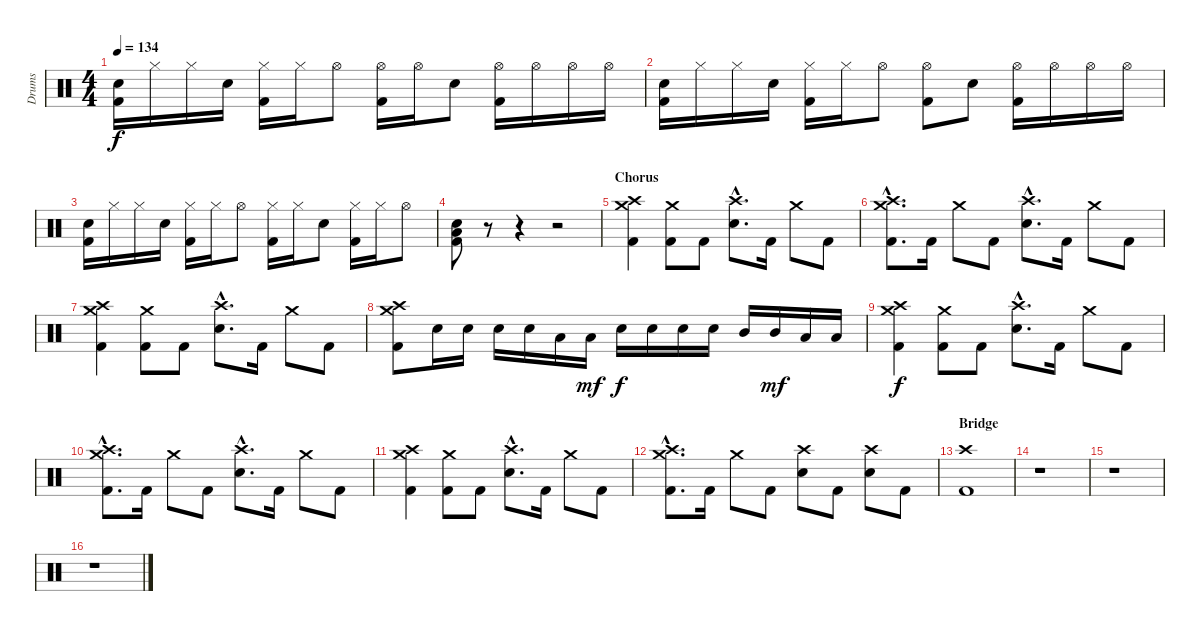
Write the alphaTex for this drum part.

\track ("Drums" "Drums") {instrument percussion}
\staff {score}
\articulation defaults
\ts (4 4)
\tempo 134
\clef neutral
\ks c
("Electric Snare (hit)" "Kick (hit) 2").16{dy f} "Hi-Hat (closed)".16 "Hi-Hat (closed)".16 "Electric Snare (hit)".16 ("Hi-Hat (closed)" "Kick (hit) 2").16 "Hi-Hat (closed)".16 "Hi-Hat (open)".8 ("Hi-Hat (open)" "Kick (hit) 2").16 "Hi-Hat (open)".16 "Electric Snare (hit)".8 ("Hi-Hat (open)" "Kick (hit) 2").16 "Hi-Hat (open)".16 "Hi-Hat (open)".16 "Hi-Hat (open)".16 |
("Electric Snare (hit)" "Kick (hit) 2").16 "Hi-Hat (closed)".16 "Hi-Hat (closed)".16 "Electric Snare (hit)".16 ("Hi-Hat (closed)" "Kick (hit) 2").16 "Hi-Hat (closed)".16 "Hi-Hat (open)".8 ("Hi-Hat (open)" "Kick (hit) 2").8 "Electric Snare (hit)".8 ("Hi-Hat (open)" "Kick (hit) 2").16 "Hi-Hat (open)".16 "Hi-Hat (open)".16 "Hi-Hat (open)".16 |
("Electric Snare (hit)" "Kick (hit) 2").16 "Hi-Hat (closed)".16 "Hi-Hat (closed)".16 "Electric Snare (hit)".16 ("Hi-Hat (closed)" "Kick (hit) 2").16 "Hi-Hat (closed)".16 "Hi-Hat (open)".8 ("Hi-Hat (closed)" "Kick (hit) 2").16 "Hi-Hat (closed)".16 "Electric Snare (hit)".8 ("Hi-Hat (closed)" "Kick (hit) 2").16 "Hi-Hat (closed)".16 "Hi-Hat (open)".8 |
("Low Tom (hit)" "Electric Snare (hit)" "Kick (hit) 2").8 r.8 r.4 r.2 |
\section ("" "Chorus")
("Crash high (hit)" "Crash medium (hit)" "Kick (hit) 2").4 ("Crash medium (hit)" "Kick (hit) 2").8 "Kick (hit) 2".8 ("Crash high (hit)"{hac} "Electric Snare (hit)"{hac}).8{d} "Kick (hit) 2".16 "Crash medium (hit)".8 "Kick (hit) 2".8 |
("Crash high (hit)"{hac} "Crash medium (hit)"{hac} "Kick (hit) 2"{hac}).8{d} "Kick (hit) 2".16 "Crash medium (hit)".8 "Kick (hit) 2".8 ("Crash high (hit)"{hac} "Electric Snare (hit)"{hac}).8{d} "Kick (hit) 2".16 "Crash medium (hit)".8 "Kick (hit) 2".8 |
("Crash high (hit)" "Crash medium (hit)" "Kick (hit) 2").4 ("Crash medium (hit)" "Kick (hit) 2").8 "Kick (hit) 2".8 ("Crash high (hit)"{hac} "Electric Snare (hit)"{hac}).8{d} "Kick (hit) 2".16 "Crash medium (hit)".8 "Kick (hit) 2".8 |
("Crash high (hit)" "Crash medium (hit)" "Kick (hit) 2").8 "Electric Snare (hit)".16 "Electric Snare (hit)".16 "Electric Snare (hit)".16 "Electric Snare (hit)".16 "Low Tom (hit)".16 "Low Tom (hit)".16{dy mf} "Electric Snare (hit)".16{dy f} "Electric Snare (hit)".16 "Electric Snare (hit)".16 "Electric Snare (hit)".16 "Mid Tom (hit)".16 "Mid Tom (hit)".16{dy mf} "Low Tom (hit)".16 "Low Tom (hit)".16 |
("Crash high (hit)" "Crash medium (hit)" "Kick (hit) 2").4{dy f} ("Crash medium (hit)" "Kick (hit) 2").8 "Kick (hit) 2".8 ("Crash high (hit)"{hac} "Electric Snare (hit)"{hac}).8{d} "Kick (hit) 2".16 "Crash medium (hit)".8 "Kick (hit) 2".8 |
("Crash high (hit)"{hac} "Crash medium (hit)"{hac} "Kick (hit) 2"{hac}).8{d} "Kick (hit) 2".16 "Crash medium (hit)".8 "Kick (hit) 2".8 ("Crash high (hit)"{hac} "Electric Snare (hit)"{hac}).8{d} "Kick (hit) 2".16 "Crash medium (hit)".8 "Kick (hit) 2".8 |
("Crash high (hit)" "Crash medium (hit)" "Kick (hit) 2").4 ("Crash medium (hit)" "Kick (hit) 2").8 "Kick (hit) 2".8 ("Crash high (hit)"{hac} "Electric Snare (hit)"{hac}).8{d} "Kick (hit) 2".16 "Crash medium (hit)".8 "Kick (hit) 2".8 |
("Crash high (hit)"{hac} "Crash medium (hit)"{hac} "Kick (hit) 2"{hac}).8{d} "Kick (hit) 2".16 "Crash medium (hit)".8 "Kick (hit) 2".8 ("Crash high (hit)" "Electric Snare (hit)").8 "Kick (hit) 2".8 ("Crash high (hit)" "Electric Snare (hit)").8 "Kick (hit) 2".8 |
\section ("" "Bridge")
("Crash high (hit)" "Kick (hit) 2").1 |
r.1 |
r.1 |
r.1
